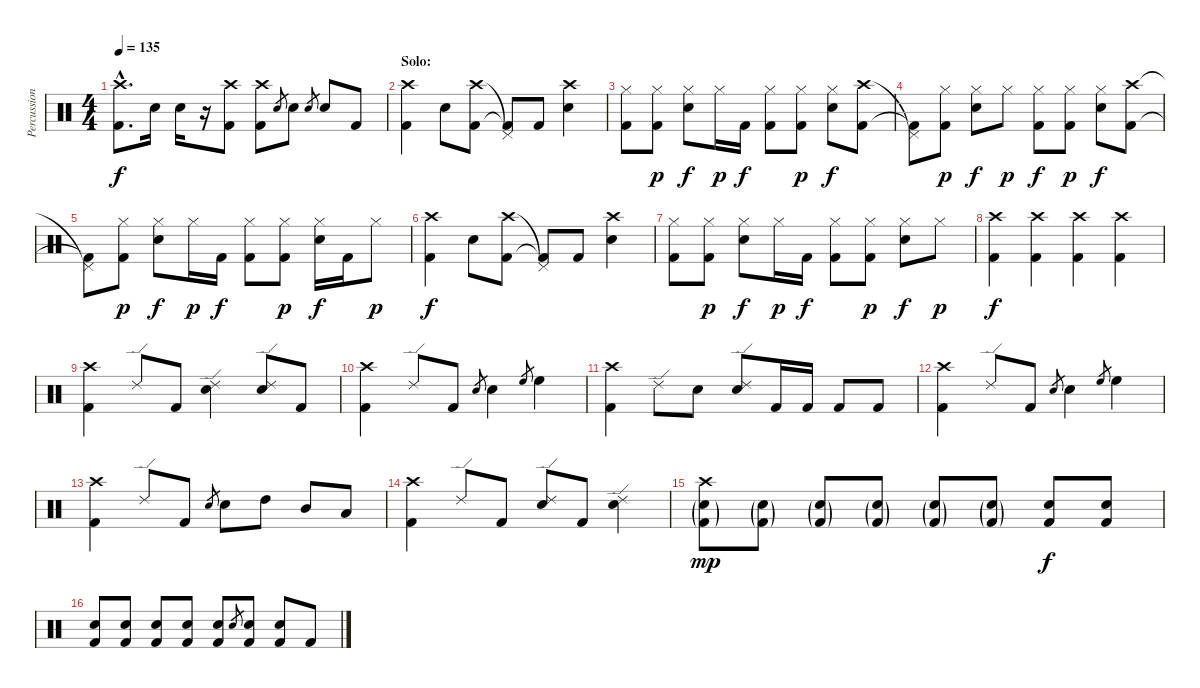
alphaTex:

\track ("Percussion" "Percussion") {instrument percussion}
\staff {score}
\articulation defaults
\ts (4 4)
\tempo 135
\clef neutral
\ks c
("Crash high (hit)"{hac} "Kick (hit) 2"{hac}).8{d dy f} "Snare (hit) 2".16 "Snare (hit) 2".16 r.16 ("Crash high (hit)" "Kick (hit) 2").8 ("Crash high (hit)" "Kick (hit) 2").8 "Snare (hit) 2".8{gr} "Snare (hit) 2".8 "Snare (hit) 2".8{gr} "Snare (hit) 2".8 "Kick (hit) 2".8 |
\section ("" "Solo:")
("Crash high (hit)" "Kick (hit) 2").4 "Snare (hit) 2".8 ("Crash high (hit)" "Kick (hit) 2").8 ("Pedal Hi-Hat (hit)"{t} "Kick (hit) 2"{t}).8 "Kick (hit) 2".8 ("Crash high (hit)" "Snare (hit) 2").4 |
("Hi-Hat (closed)" "Kick (hit) 2").8 ("Hi-Hat (closed)" "Kick (hit) 2").8{dy p} ("Hi-Hat (closed)" "Snare (hit) 2").8{dy f} "Hi-Hat (closed)".16{dy p} "Kick (hit) 2".16{dy f} ("Hi-Hat (closed)" "Kick (hit) 2").8 ("Hi-Hat (closed)" "Kick (hit) 2").8{dy p} ("Hi-Hat (closed)" "Snare (hit) 2").8{dy f} ("Crash high (hit)" "Kick (hit) 2").8 |
("Pedal Hi-Hat (hit)"{t} "Kick (hit) 2"{t}).8 ("Hi-Hat (closed)" "Kick (hit) 2").8{dy p} ("Hi-Hat (closed)" "Snare (hit) 2").8{dy f} "Hi-Hat (closed)".8{dy p} ("Hi-Hat (closed)" "Kick (hit) 2").8{dy f} ("Hi-Hat (closed)" "Kick (hit) 2").8{dy p} ("Hi-Hat (closed)" "Snare (hit) 2").8{dy f} ("Crash high (hit)" "Kick (hit) 2").8 |
("Pedal Hi-Hat (hit)"{t} "Kick (hit) 2"{t}).8 ("Hi-Hat (closed)" "Kick (hit) 2").8{dy p} ("Hi-Hat (closed)" "Snare (hit) 2").8{dy f} "Hi-Hat (closed)".16{dy p} "Kick (hit) 2".16{dy f} ("Hi-Hat (closed)" "Kick (hit) 2").8 ("Hi-Hat (closed)" "Kick (hit) 2").8{dy p} ("Hi-Hat (closed)" "Snare (hit) 2").16{dy f} "Kick (hit) 2".16 "Hi-Hat (closed)".8{dy p} |
("Crash high (hit)" "Kick (hit) 2").4{dy f} "Snare (hit) 2".8 ("Crash high (hit)" "Kick (hit) 2").8 ("Pedal Hi-Hat (hit)"{t} "Kick (hit) 2"{t}).8 "Kick (hit) 2".8 ("Crash high (hit)" "Snare (hit) 2").4 |
("Hi-Hat (closed)" "Kick (hit) 2").8 ("Hi-Hat (closed)" "Kick (hit) 2").8{dy p} ("Hi-Hat (closed)" "Snare (hit) 2").8{dy f} "Hi-Hat (closed)".16{dy p} "Kick (hit) 2".16{dy f} ("Hi-Hat (closed)" "Kick (hit) 2").8 ("Hi-Hat (closed)" "Kick (hit) 2").8{dy p} ("Hi-Hat (closed)" "Snare (hit) 2").8{dy f} "Hi-Hat (closed)".8{dy p} |
("Crash high (hit)" "Kick (hit) 2").4{dy f} ("Crash high (hit)" "Kick (hit) 2").4 ("Crash high (hit)" "Kick (hit) 2").4 ("Crash high (hit)" "Kick (hit) 2").4 |
("Crash high (hit)" "Kick (hit) 2").4 "Ride (edge) 2".8 "Kick (hit) 2".8 ("Ride (edge) 2" "Snare (hit) 2").4 ("Ride (edge) 2" "Snare (hit) 2").8 "Kick (hit) 2".8 |
("Crash high (hit)" "Kick (hit) 2").4 "Ride (edge) 2".8 "Kick (hit) 2".8 "Snare (hit) 2".8{gr} "Snare (hit) 2".4 "High Floor Tom (hit)".8{gr} "High Floor Tom (hit)".4 |
("Crash high (hit)" "Kick (hit) 2").4 "Ride (edge) 2".8 "Snare (hit) 2".8 ("Ride (edge) 2" "Snare (hit) 2").8 "Kick (hit) 2".16 "Kick (hit) 2".16 "Kick (hit) 2".8 "Kick (hit) 2".8 |
("Crash high (hit)" "Kick (hit) 2").4 "Ride (edge) 2".8 "Kick (hit) 2".8 "Snare (hit) 2".8{gr} "Snare (hit) 2".4 "High Floor Tom (hit)".8{gr} "High Floor Tom (hit)".4 |
("Crash high (hit)" "Kick (hit) 2").4 "Ride (edge) 2".8 "Kick (hit) 2".8 "Snare (hit) 2".8{gr} "Snare (hit) 2".8 "High Tom (hit)".8 "Mid Tom (hit)".8 "Low Tom (hit)".8 |
("Crash high (hit)" "Kick (hit) 2").4 "Ride (edge) 2".8 "Kick (hit) 2".8 ("Ride (edge) 2" "Snare (hit) 2").8 "Kick (hit) 2".8 ("Ride (edge) 2" "Snare (hit) 2").4 |
("Crash high (hit)" "Snare (hit) 2"{g} "Kick (hit) 2"{g}).8{dy mp} ("Snare (hit) 2"{g} "Kick (hit) 2"{g}).8 ("Snare (hit) 2"{g} "Kick (hit) 2"{g}).8 ("Snare (hit) 2"{g} "Kick (hit) 2"{g}).8 ("Snare (hit) 2"{g} "Kick (hit) 2"{g}).8 ("Snare (hit) 2"{g} "Kick (hit) 2"{g}).8 ("Snare (hit) 2" "Kick (hit) 2").8{dy f} ("Snare (hit) 2" "Kick (hit) 2").8 |
("Snare (hit) 2" "Kick (hit) 2").8 ("Snare (hit) 2" "Kick (hit) 2").8 ("Snare (hit) 2" "Kick (hit) 2").8 ("Snare (hit) 2" "Kick (hit) 2").8 ("Snare (hit) 2" "Kick (hit) 2").8 "Snare (hit) 2".8{gr} ("Snare (hit) 2" "Kick (hit) 2").8 ("Snare (hit) 2" "Kick (hit) 2").8 "Kick (hit) 2".8
